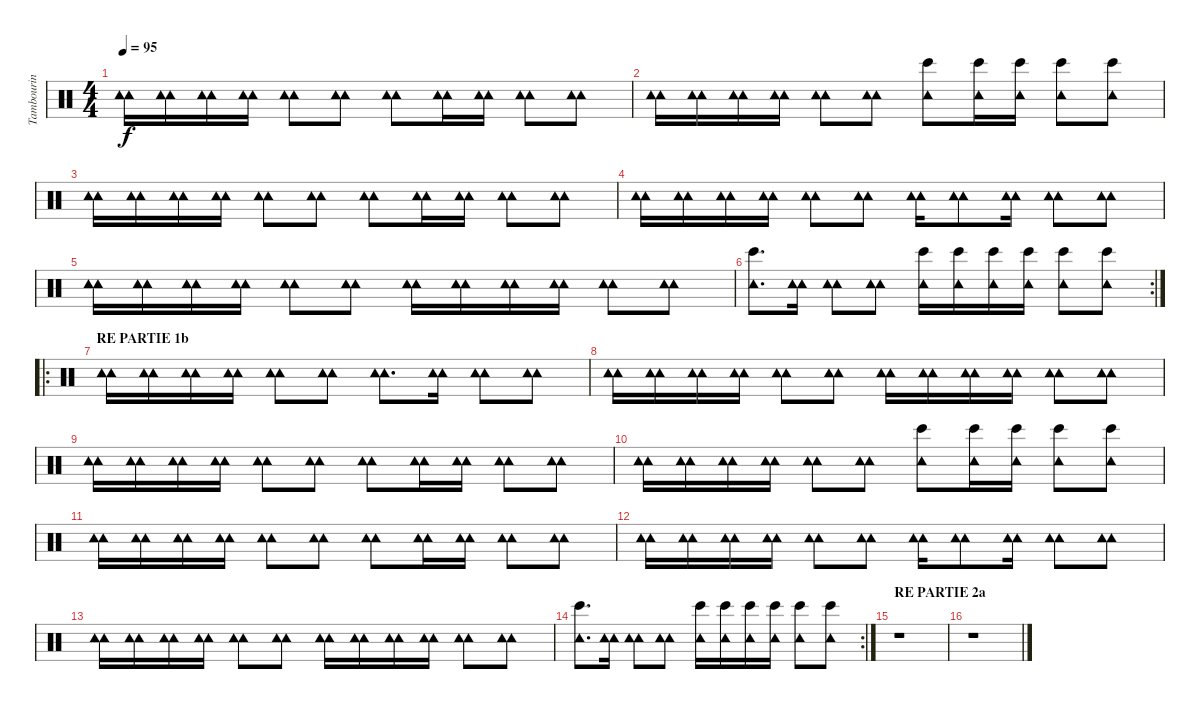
\track ("Tambourin" "Tambourin") {instrument percussion}
\staff {score}
\articulation defaults
\ts (4 4)
\tempo 95
\clef neutral
\ks c
("Tambourine (hit)" "Tambourine (hit)").16{dy f} ("Tambourine (hit)" "Tambourine (hit)").16 ("Tambourine (hit)" "Tambourine (hit)").16 ("Tambourine (hit)" "Tambourine (hit)").16 ("Tambourine (hit)" "Tambourine (hit)").8 ("Tambourine (hit)" "Tambourine (hit)").8 ("Tambourine (hit)" "Tambourine (hit)").8 ("Tambourine (hit)" "Tambourine (hit)").16 ("Tambourine (hit)" "Tambourine (hit)").16 ("Tambourine (hit)" "Tambourine (hit)").8 ("Tambourine (hit)" "Tambourine (hit)").8 |
("Tambourine (hit)" "Tambourine (hit)").16 ("Tambourine (hit)" "Tambourine (hit)").16 ("Tambourine (hit)" "Tambourine (hit)").16 ("Tambourine (hit)" "Tambourine (hit)").16 ("Tambourine (hit)" "Tambourine (hit)").8 ("Tambourine (hit)" "Tambourine (hit)").8 ("Tambourine (hit)" "Bongo High (hit)").8 ("Tambourine (hit)" "Bongo High (hit)").16 ("Tambourine (hit)" "Bongo High (hit)").16 ("Tambourine (hit)" "Bongo High (hit)").8 ("Tambourine (hit)" "Bongo High (hit)").8 |
("Tambourine (hit)" "Tambourine (hit)").16 ("Tambourine (hit)" "Tambourine (hit)").16 ("Tambourine (hit)" "Tambourine (hit)").16 ("Tambourine (hit)" "Tambourine (hit)").16 ("Tambourine (hit)" "Tambourine (hit)").8 ("Tambourine (hit)" "Tambourine (hit)").8 ("Tambourine (hit)" "Tambourine (hit)").8 ("Tambourine (hit)" "Tambourine (hit)").16 ("Tambourine (hit)" "Tambourine (hit)").16 ("Tambourine (hit)" "Tambourine (hit)").8 ("Tambourine (hit)" "Tambourine (hit)").8 |
("Tambourine (hit)" "Tambourine (hit)").16 ("Tambourine (hit)" "Tambourine (hit)").16 ("Tambourine (hit)" "Tambourine (hit)").16 ("Tambourine (hit)" "Tambourine (hit)").16 ("Tambourine (hit)" "Tambourine (hit)").8 ("Tambourine (hit)" "Tambourine (hit)").8 ("Tambourine (hit)" "Tambourine (hit)").16 ("Tambourine (hit)" "Tambourine (hit)").8 ("Tambourine (hit)" "Tambourine (hit)").16 ("Tambourine (hit)" "Tambourine (hit)").8 ("Tambourine (hit)" "Tambourine (hit)").8 |
("Tambourine (hit)" "Tambourine (hit)").16 ("Tambourine (hit)" "Tambourine (hit)").16 ("Tambourine (hit)" "Tambourine (hit)").16 ("Tambourine (hit)" "Tambourine (hit)").16 ("Tambourine (hit)" "Tambourine (hit)").8 ("Tambourine (hit)" "Tambourine (hit)").8 ("Tambourine (hit)" "Tambourine (hit)").16 ("Tambourine (hit)" "Tambourine (hit)").16 ("Tambourine (hit)" "Tambourine (hit)").16 ("Tambourine (hit)" "Tambourine (hit)").16 ("Tambourine (hit)" "Tambourine (hit)").8 ("Tambourine (hit)" "Tambourine (hit)").8 |
\rc 2
("Tambourine (hit)" "Bongo High (hit)").8{d} ("Tambourine (hit)" "Tambourine (hit)").16 ("Tambourine (hit)" "Tambourine (hit)").8 ("Tambourine (hit)" "Tambourine (hit)").8 ("Tambourine (hit)" "Bongo High (hit)").16 ("Tambourine (hit)" "Bongo High (hit)").16 ("Tambourine (hit)" "Bongo High (hit)").16 ("Tambourine (hit)" "Bongo High (hit)").16 ("Tambourine (hit)" "Bongo High (hit)").8 ("Tambourine (hit)" "Bongo High (hit)").8 |
\ro
\section ("" "RE PARTIE 1b")
("Tambourine (hit)" "Tambourine (hit)").16 ("Tambourine (hit)" "Tambourine (hit)").16 ("Tambourine (hit)" "Tambourine (hit)").16 ("Tambourine (hit)" "Tambourine (hit)").16 ("Tambourine (hit)" "Tambourine (hit)").8 ("Tambourine (hit)" "Tambourine (hit)").8 ("Tambourine (hit)" "Tambourine (hit)").8{d} ("Tambourine (hit)" "Tambourine (hit)").16 ("Tambourine (hit)" "Tambourine (hit)").8 ("Tambourine (hit)" "Tambourine (hit)").8 |
("Tambourine (hit)" "Tambourine (hit)").16 ("Tambourine (hit)" "Tambourine (hit)").16 ("Tambourine (hit)" "Tambourine (hit)").16 ("Tambourine (hit)" "Tambourine (hit)").16 ("Tambourine (hit)" "Tambourine (hit)").8 ("Tambourine (hit)" "Tambourine (hit)").8 ("Tambourine (hit)" "Tambourine (hit)").16 ("Tambourine (hit)" "Tambourine (hit)").16 ("Tambourine (hit)" "Tambourine (hit)").16 ("Tambourine (hit)" "Tambourine (hit)").16 ("Tambourine (hit)" "Tambourine (hit)").8 ("Tambourine (hit)" "Tambourine (hit)").8 |
("Tambourine (hit)" "Tambourine (hit)").16 ("Tambourine (hit)" "Tambourine (hit)").16 ("Tambourine (hit)" "Tambourine (hit)").16 ("Tambourine (hit)" "Tambourine (hit)").16 ("Tambourine (hit)" "Tambourine (hit)").8 ("Tambourine (hit)" "Tambourine (hit)").8 ("Tambourine (hit)" "Tambourine (hit)").8 ("Tambourine (hit)" "Tambourine (hit)").16 ("Tambourine (hit)" "Tambourine (hit)").16 ("Tambourine (hit)" "Tambourine (hit)").8 ("Tambourine (hit)" "Tambourine (hit)").8 |
("Tambourine (hit)" "Tambourine (hit)").16 ("Tambourine (hit)" "Tambourine (hit)").16 ("Tambourine (hit)" "Tambourine (hit)").16 ("Tambourine (hit)" "Tambourine (hit)").16 ("Tambourine (hit)" "Tambourine (hit)").8 ("Tambourine (hit)" "Tambourine (hit)").8 ("Tambourine (hit)" "Bongo High (hit)").8 ("Tambourine (hit)" "Bongo High (hit)").16 ("Tambourine (hit)" "Bongo High (hit)").16 ("Tambourine (hit)" "Bongo High (hit)").8 ("Tambourine (hit)" "Bongo High (hit)").8 |
("Tambourine (hit)" "Tambourine (hit)").16 ("Tambourine (hit)" "Tambourine (hit)").16 ("Tambourine (hit)" "Tambourine (hit)").16 ("Tambourine (hit)" "Tambourine (hit)").16 ("Tambourine (hit)" "Tambourine (hit)").8 ("Tambourine (hit)" "Tambourine (hit)").8 ("Tambourine (hit)" "Tambourine (hit)").8 ("Tambourine (hit)" "Tambourine (hit)").16 ("Tambourine (hit)" "Tambourine (hit)").16 ("Tambourine (hit)" "Tambourine (hit)").8 ("Tambourine (hit)" "Tambourine (hit)").8 |
("Tambourine (hit)" "Tambourine (hit)").16 ("Tambourine (hit)" "Tambourine (hit)").16 ("Tambourine (hit)" "Tambourine (hit)").16 ("Tambourine (hit)" "Tambourine (hit)").16 ("Tambourine (hit)" "Tambourine (hit)").8 ("Tambourine (hit)" "Tambourine (hit)").8 ("Tambourine (hit)" "Tambourine (hit)").16 ("Tambourine (hit)" "Tambourine (hit)").8 ("Tambourine (hit)" "Tambourine (hit)").16 ("Tambourine (hit)" "Tambourine (hit)").8 ("Tambourine (hit)" "Tambourine (hit)").8 |
("Tambourine (hit)" "Tambourine (hit)").16 ("Tambourine (hit)" "Tambourine (hit)").16 ("Tambourine (hit)" "Tambourine (hit)").16 ("Tambourine (hit)" "Tambourine (hit)").16 ("Tambourine (hit)" "Tambourine (hit)").8 ("Tambourine (hit)" "Tambourine (hit)").8 ("Tambourine (hit)" "Tambourine (hit)").16 ("Tambourine (hit)" "Tambourine (hit)").16 ("Tambourine (hit)" "Tambourine (hit)").16 ("Tambourine (hit)" "Tambourine (hit)").16 ("Tambourine (hit)" "Tambourine (hit)").8 ("Tambourine (hit)" "Tambourine (hit)").8 |
\rc 2
("Tambourine (hit)" "Bongo High (hit)").8{d} ("Tambourine (hit)" "Tambourine (hit)").16 ("Tambourine (hit)" "Tambourine (hit)").8 ("Tambourine (hit)" "Tambourine (hit)").8 ("Tambourine (hit)" "Bongo High (hit)").16 ("Tambourine (hit)" "Bongo High (hit)").16 ("Tambourine (hit)" "Bongo High (hit)").16 ("Tambourine (hit)" "Bongo High (hit)").16 ("Tambourine (hit)" "Bongo High (hit)").8 ("Tambourine (hit)" "Bongo High (hit)").8 |
\section ("" "RE PARTIE 2a")
r.1 |
r.1
